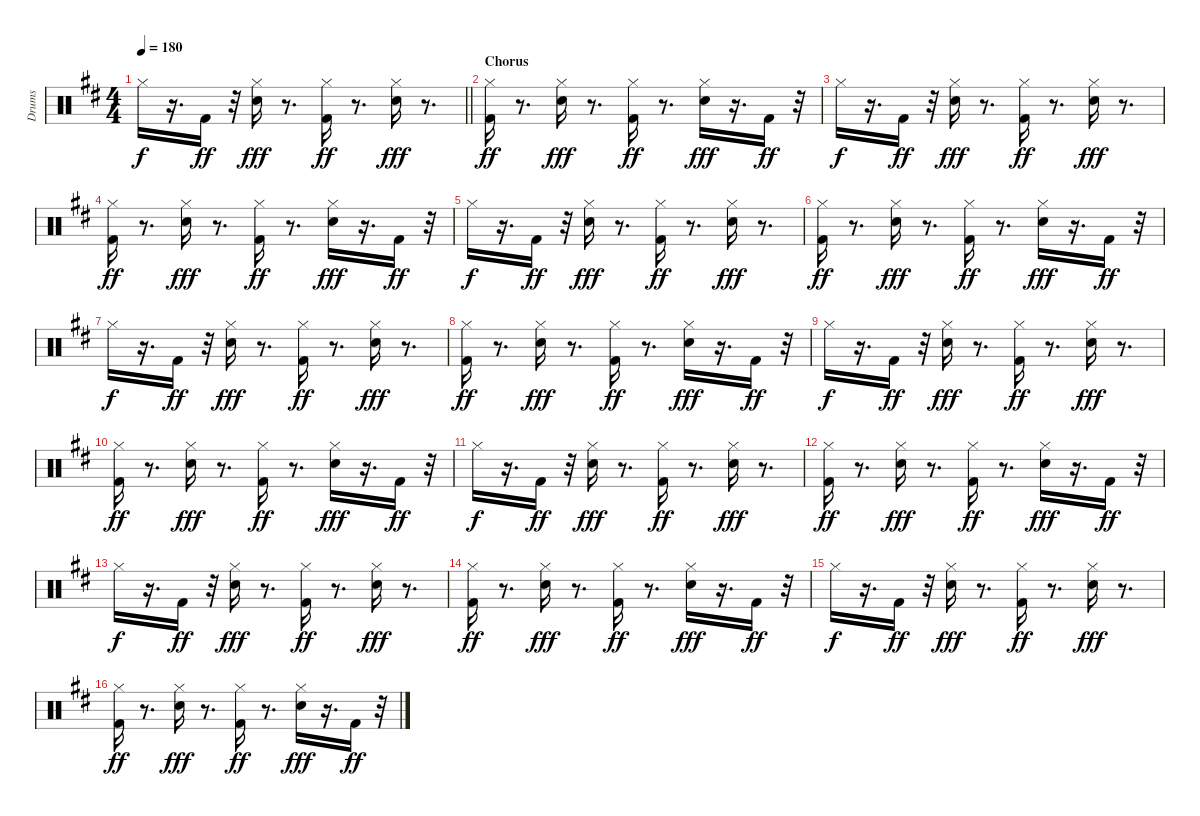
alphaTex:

\track ("Drums" "Drums") {instrument percussion}
\staff {score}
\articulation defaults
\ts (4 4)
\tempo 180
\clef neutral
\barLineRight lightlight
\ks bminor "Hi-Hat (closed)".16{dy f}
r.16{d} "Kick (hit) 2".16{dy ff} r.32 ("Snare (hit) 2" "Hi-Hat (closed)").16{dy fff} r.8{d} ("Kick (hit) 2" "Hi-Hat (closed)").16{dy ff} r.8{d} ("Snare (hit) 2" "Hi-Hat (closed)").16{dy fff} r.8{d} |
\section ("" "Chorus")
("Kick (hit) 2" "Hi-Hat (closed)").16{dy ff} r.8{d} ("Snare (hit) 2" "Hi-Hat (closed)").16{dy fff} r.8{d} ("Kick (hit) 2" "Hi-Hat (closed)").16{dy ff} r.8{d} ("Snare (hit) 2" "Hi-Hat (closed)").16{dy fff} r.16{d} "Kick (hit) 2".16{dy ff} r.32 |
"Hi-Hat (closed)".16{dy f} r.16{d} "Kick (hit) 2".16{dy ff} r.32 ("Snare (hit) 2" "Hi-Hat (closed)").16{dy fff} r.8{d} ("Kick (hit) 2" "Hi-Hat (closed)").16{dy ff} r.8{d} ("Snare (hit) 2" "Hi-Hat (closed)").16{dy fff} r.8{d} |
("Kick (hit) 2" "Hi-Hat (closed)").16{dy ff} r.8{d} ("Snare (hit) 2" "Hi-Hat (closed)").16{dy fff} r.8{d} ("Kick (hit) 2" "Hi-Hat (closed)").16{dy ff} r.8{d} ("Snare (hit) 2" "Hi-Hat (closed)").16{dy fff} r.16{d} "Kick (hit) 2".16{dy ff} r.32 |
"Hi-Hat (closed)".16{dy f} r.16{d} "Kick (hit) 2".16{dy ff} r.32 ("Snare (hit) 2" "Hi-Hat (closed)").16{dy fff} r.8{d} ("Kick (hit) 2" "Hi-Hat (closed)").16{dy ff} r.8{d} ("Snare (hit) 2" "Hi-Hat (closed)").16{dy fff} r.8{d} |
("Kick (hit) 2" "Hi-Hat (closed)").16{dy ff} r.8{d} ("Snare (hit) 2" "Hi-Hat (closed)").16{dy fff} r.8{d} ("Kick (hit) 2" "Hi-Hat (closed)").16{dy ff} r.8{d} ("Snare (hit) 2" "Hi-Hat (closed)").16{dy fff} r.16{d} "Kick (hit) 2".16{dy ff} r.32 |
"Hi-Hat (closed)".16{dy f} r.16{d} "Kick (hit) 2".16{dy ff} r.32 ("Snare (hit) 2" "Hi-Hat (closed)").16{dy fff} r.8{d} ("Kick (hit) 2" "Hi-Hat (closed)").16{dy ff} r.8{d} ("Snare (hit) 2" "Hi-Hat (closed)").16{dy fff} r.8{d} |
("Kick (hit) 2" "Hi-Hat (closed)").16{dy ff} r.8{d} ("Snare (hit) 2" "Hi-Hat (closed)").16{dy fff} r.8{d} ("Kick (hit) 2" "Hi-Hat (closed)").16{dy ff} r.8{d} ("Snare (hit) 2" "Hi-Hat (closed)").16{dy fff} r.16{d} "Kick (hit) 2".16{dy ff} r.32 |
"Hi-Hat (closed)".16{dy f} r.16{d} "Kick (hit) 2".16{dy ff} r.32 ("Snare (hit) 2" "Hi-Hat (closed)").16{dy fff} r.8{d} ("Kick (hit) 2" "Hi-Hat (closed)").16{dy ff} r.8{d} ("Snare (hit) 2" "Hi-Hat (closed)").16{dy fff} r.8{d} |
("Kick (hit) 2" "Hi-Hat (closed)").16{dy ff} r.8{d} ("Snare (hit) 2" "Hi-Hat (closed)").16{dy fff} r.8{d} ("Kick (hit) 2" "Hi-Hat (closed)").16{dy ff} r.8{d} ("Snare (hit) 2" "Hi-Hat (closed)").16{dy fff} r.16{d} "Kick (hit) 2".16{dy ff} r.32 |
"Hi-Hat (closed)".16{dy f} r.16{d} "Kick (hit) 2".16{dy ff} r.32 ("Snare (hit) 2" "Hi-Hat (closed)").16{dy fff} r.8{d} ("Kick (hit) 2" "Hi-Hat (closed)").16{dy ff} r.8{d} ("Snare (hit) 2" "Hi-Hat (closed)").16{dy fff} r.8{d} |
("Kick (hit) 2" "Hi-Hat (closed)").16{dy ff} r.8{d} ("Snare (hit) 2" "Hi-Hat (closed)").16{dy fff} r.8{d} ("Kick (hit) 2" "Hi-Hat (closed)").16{dy ff} r.8{d} ("Snare (hit) 2" "Hi-Hat (closed)").16{dy fff} r.16{d} "Kick (hit) 2".16{dy ff} r.32 |
"Hi-Hat (closed)".16{dy f} r.16{d} "Kick (hit) 2".16{dy ff} r.32 ("Snare (hit) 2" "Hi-Hat (closed)").16{dy fff} r.8{d} ("Kick (hit) 2" "Hi-Hat (closed)").16{dy ff} r.8{d} ("Snare (hit) 2" "Hi-Hat (closed)").16{dy fff} r.8{d} |
("Kick (hit) 2" "Hi-Hat (closed)").16{dy ff} r.8{d} ("Snare (hit) 2" "Hi-Hat (closed)").16{dy fff} r.8{d} ("Kick (hit) 2" "Hi-Hat (closed)").16{dy ff} r.8{d} ("Snare (hit) 2" "Hi-Hat (closed)").16{dy fff} r.16{d} "Kick (hit) 2".16{dy ff} r.32 |
"Hi-Hat (closed)".16{dy f} r.16{d} "Kick (hit) 2".16{dy ff} r.32 ("Snare (hit) 2" "Hi-Hat (closed)").16{dy fff} r.8{d} ("Kick (hit) 2" "Hi-Hat (closed)").16{dy ff} r.8{d} ("Snare (hit) 2" "Hi-Hat (closed)").16{dy fff} r.8{d} |
("Kick (hit) 2" "Hi-Hat (closed)").16{dy ff} r.8{d} ("Snare (hit) 2" "Hi-Hat (closed)").16{dy fff} r.8{d} ("Kick (hit) 2" "Hi-Hat (closed)").16{dy ff} r.8{d} ("Snare (hit) 2" "Hi-Hat (closed)").16{dy fff} r.16{d} "Kick (hit) 2".16{dy ff} r.32
